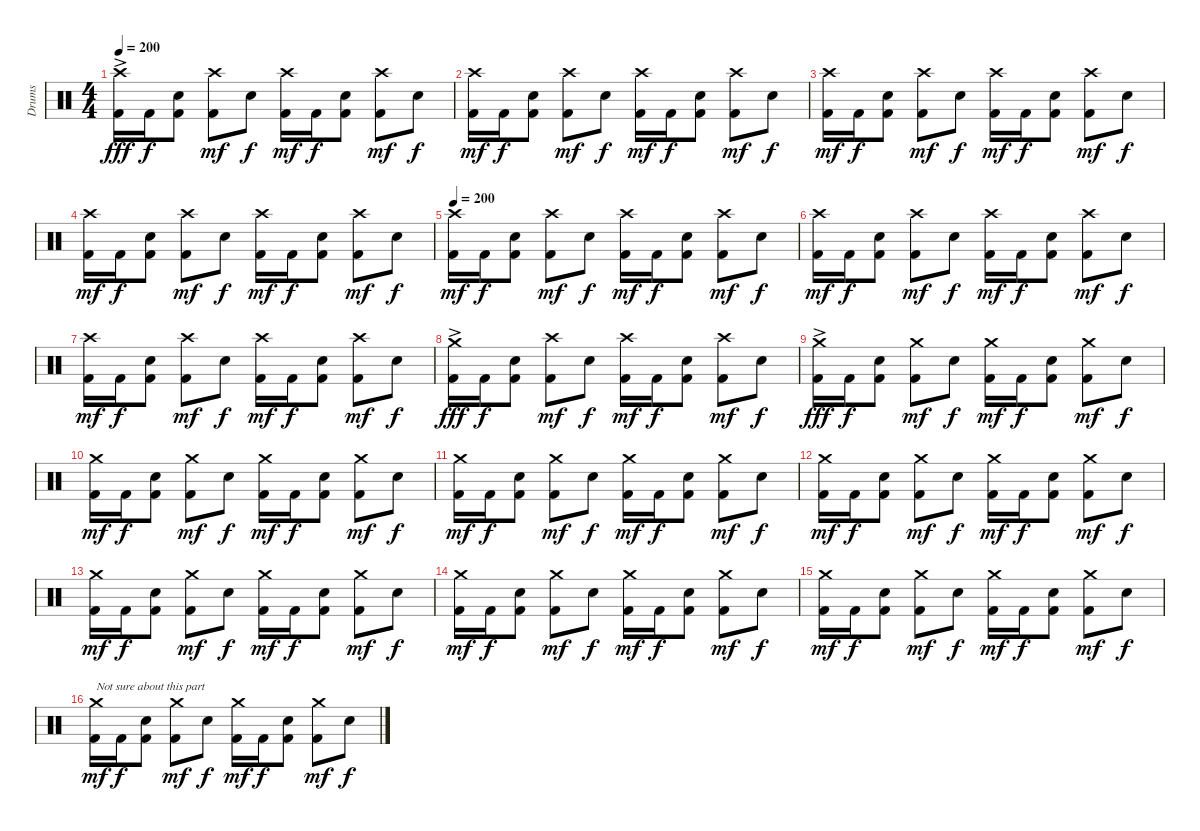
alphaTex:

\track ("Drums" "Drums") {instrument percussion}
\staff {score}
\articulation defaults
\ts (4 4)
\tempo 200
\clef neutral
\ks c
("Crash high (hit)"{ac} "Kick (hit) 2").16{dy fff} "Kick (hit) 2".16{dy f} ("Electric Snare (hit)" "Kick (hit) 2").8 ("Crash high (hit)" "Kick (hit) 2").8{dy mf} "Electric Snare (hit)".8{dy f} ("Crash high (hit)" "Kick (hit) 2").16{dy mf} "Kick (hit) 2".16{dy f} ("Electric Snare (hit)" "Kick (hit) 2").8 ("Crash high (hit)" "Kick (hit) 2").8{dy mf} "Electric Snare (hit)".8{dy f} |
("Crash high (hit)" "Kick (hit) 2").16{dy mf} "Kick (hit) 2".16{dy f} ("Electric Snare (hit)" "Kick (hit) 2").8 ("Crash high (hit)" "Kick (hit) 2").8{dy mf} "Electric Snare (hit)".8{dy f} ("Crash high (hit)" "Kick (hit) 2").16{dy mf} "Kick (hit) 2".16{dy f} ("Electric Snare (hit)" "Kick (hit) 2").8 ("Crash high (hit)" "Kick (hit) 2").8{dy mf} "Electric Snare (hit)".8{dy f} |
("Crash high (hit)" "Kick (hit) 2").16{dy mf} "Kick (hit) 2".16{dy f} ("Electric Snare (hit)" "Kick (hit) 2").8 ("Crash high (hit)" "Kick (hit) 2").8{dy mf} "Electric Snare (hit)".8{dy f} ("Crash high (hit)" "Kick (hit) 2").16{dy mf} "Kick (hit) 2".16{dy f} ("Electric Snare (hit)" "Kick (hit) 2").8 ("Crash high (hit)" "Kick (hit) 2").8{dy mf} "Electric Snare (hit)".8{dy f} |
("Crash high (hit)" "Kick (hit) 2").16{dy mf} "Kick (hit) 2".16{dy f} ("Electric Snare (hit)" "Kick (hit) 2").8 ("Crash high (hit)" "Kick (hit) 2").8{dy mf} "Electric Snare (hit)".8{dy f} ("Crash high (hit)" "Kick (hit) 2").16{dy mf} "Kick (hit) 2".16{dy f} ("Electric Snare (hit)" "Kick (hit) 2").8 ("Crash high (hit)" "Kick (hit) 2").8{dy mf} "Electric Snare (hit)".8{dy f} |
\tempo 200
("Crash high (hit)" "Kick (hit) 2").16{dy mf} "Kick (hit) 2".16{dy f} ("Electric Snare (hit)" "Kick (hit) 2").8 ("Crash high (hit)" "Kick (hit) 2").8{dy mf} "Electric Snare (hit)".8{dy f} ("Crash high (hit)" "Kick (hit) 2").16{dy mf} "Kick (hit) 2".16{dy f} ("Electric Snare (hit)" "Kick (hit) 2").8 ("Crash high (hit)" "Kick (hit) 2").8{dy mf} "Electric Snare (hit)".8{dy f} |
("Crash high (hit)" "Kick (hit) 2").16{dy mf} "Kick (hit) 2".16{dy f} ("Electric Snare (hit)" "Kick (hit) 2").8 ("Crash high (hit)" "Kick (hit) 2").8{dy mf} "Electric Snare (hit)".8{dy f} ("Crash high (hit)" "Kick (hit) 2").16{dy mf} "Kick (hit) 2".16{dy f} ("Electric Snare (hit)" "Kick (hit) 2").8 ("Crash high (hit)" "Kick (hit) 2").8{dy mf} "Electric Snare (hit)".8{dy f} |
("Crash high (hit)" "Kick (hit) 2").16{dy mf} "Kick (hit) 2".16{dy f} ("Electric Snare (hit)" "Kick (hit) 2").8 ("Crash high (hit)" "Kick (hit) 2").8{dy mf} "Electric Snare (hit)".8{dy f} ("Crash high (hit)" "Kick (hit) 2").16{dy mf} "Kick (hit) 2".16{dy f} ("Electric Snare (hit)" "Kick (hit) 2").8 ("Crash high (hit)" "Kick (hit) 2").8{dy mf} "Electric Snare (hit)".8{dy f} |
("Crash medium (hit)"{ac} "Kick (hit) 2").16{dy fff} "Kick (hit) 2".16{dy f} ("Electric Snare (hit)" "Kick (hit) 2").8 ("Crash high (hit)" "Kick (hit) 2").8{dy mf} "Electric Snare (hit)".8{dy f} ("Crash high (hit)" "Kick (hit) 2").16{dy mf} "Kick (hit) 2".16{dy f} ("Electric Snare (hit)" "Kick (hit) 2").8 ("Crash high (hit)" "Kick (hit) 2").8{dy mf} "Electric Snare (hit)".8{dy f} |
("Crash medium (hit)"{ac} "Kick (hit) 2").16{dy fff} "Kick (hit) 2".16{dy f} ("Electric Snare (hit)" "Kick (hit) 2").8 ("Crash medium (hit)" "Kick (hit) 2").8{dy mf} "Electric Snare (hit)".8{dy f} ("Crash medium (hit)" "Kick (hit) 2").16{dy mf} "Kick (hit) 2".16{dy f} ("Electric Snare (hit)" "Kick (hit) 2").8 ("Crash medium (hit)" "Kick (hit) 2").8{dy mf} "Electric Snare (hit)".8{dy f} |
("Crash medium (hit)" "Kick (hit) 2").16{dy mf} "Kick (hit) 2".16{dy f} ("Electric Snare (hit)" "Kick (hit) 2").8 ("Crash medium (hit)" "Kick (hit) 2").8{dy mf} "Electric Snare (hit)".8{dy f} ("Crash medium (hit)" "Kick (hit) 2").16{dy mf} "Kick (hit) 2".16{dy f} ("Electric Snare (hit)" "Kick (hit) 2").8 ("Crash medium (hit)" "Kick (hit) 2").8{dy mf} "Electric Snare (hit)".8{dy f} |
("Crash medium (hit)" "Kick (hit) 2").16{dy mf} "Kick (hit) 2".16{dy f} ("Electric Snare (hit)" "Kick (hit) 2").8 ("Crash medium (hit)" "Kick (hit) 2").8{dy mf} "Electric Snare (hit)".8{dy f} ("Crash medium (hit)" "Kick (hit) 2").16{dy mf} "Kick (hit) 2".16{dy f} ("Electric Snare (hit)" "Kick (hit) 2").8 ("Crash medium (hit)" "Kick (hit) 2").8{dy mf} "Electric Snare (hit)".8{dy f} |
("Crash medium (hit)" "Kick (hit) 2").16{dy mf} "Kick (hit) 2".16{dy f} ("Electric Snare (hit)" "Kick (hit) 2").8 ("Crash medium (hit)" "Kick (hit) 2").8{dy mf} "Electric Snare (hit)".8{dy f} ("Crash medium (hit)" "Kick (hit) 2").16{dy mf} "Kick (hit) 2".16{dy f} ("Electric Snare (hit)" "Kick (hit) 2").8 ("Crash medium (hit)" "Kick (hit) 2").8{dy mf} "Electric Snare (hit)".8{dy f} |
("Crash medium (hit)" "Kick (hit) 2").16{dy mf} "Kick (hit) 2".16{dy f} ("Electric Snare (hit)" "Kick (hit) 2").8 ("Crash medium (hit)" "Kick (hit) 2").8{dy mf} "Electric Snare (hit)".8{dy f} ("Crash medium (hit)" "Kick (hit) 2").16{dy mf} "Kick (hit) 2".16{dy f} ("Electric Snare (hit)" "Kick (hit) 2").8 ("Crash medium (hit)" "Kick (hit) 2").8{dy mf} "Electric Snare (hit)".8{dy f} |
("Crash medium (hit)" "Kick (hit) 2").16{dy mf} "Kick (hit) 2".16{dy f} ("Electric Snare (hit)" "Kick (hit) 2").8 ("Crash medium (hit)" "Kick (hit) 2").8{dy mf} "Electric Snare (hit)".8{dy f} ("Crash medium (hit)" "Kick (hit) 2").16{dy mf} "Kick (hit) 2".16{dy f} ("Electric Snare (hit)" "Kick (hit) 2").8 ("Crash medium (hit)" "Kick (hit) 2").8{dy mf} "Electric Snare (hit)".8{dy f} |
("Crash medium (hit)" "Kick (hit) 2").16{dy mf} "Kick (hit) 2".16{dy f} ("Electric Snare (hit)" "Kick (hit) 2").8 ("Crash medium (hit)" "Kick (hit) 2").8{dy mf} "Electric Snare (hit)".8{dy f} ("Crash medium (hit)" "Kick (hit) 2").16{dy mf} "Kick (hit) 2".16{dy f} ("Electric Snare (hit)" "Kick (hit) 2").8 ("Crash medium (hit)" "Kick (hit) 2").8{dy mf} "Electric Snare (hit)".8{dy f} |
("Crash medium (hit)" "Kick (hit) 2").16{txt "Not sure about this part" dy mf} "Kick (hit) 2".16{dy f} ("Electric Snare (hit)" "Kick (hit) 2").8 ("Crash medium (hit)" "Kick (hit) 2").8{dy mf} "Electric Snare (hit)".8{dy f} ("Crash medium (hit)" "Kick (hit) 2").16{dy mf} "Kick (hit) 2".16{dy f} ("Electric Snare (hit)" "Kick (hit) 2").8 ("Crash medium (hit)" "Kick (hit) 2").8{dy mf} "Electric Snare (hit)".8{dy f}
